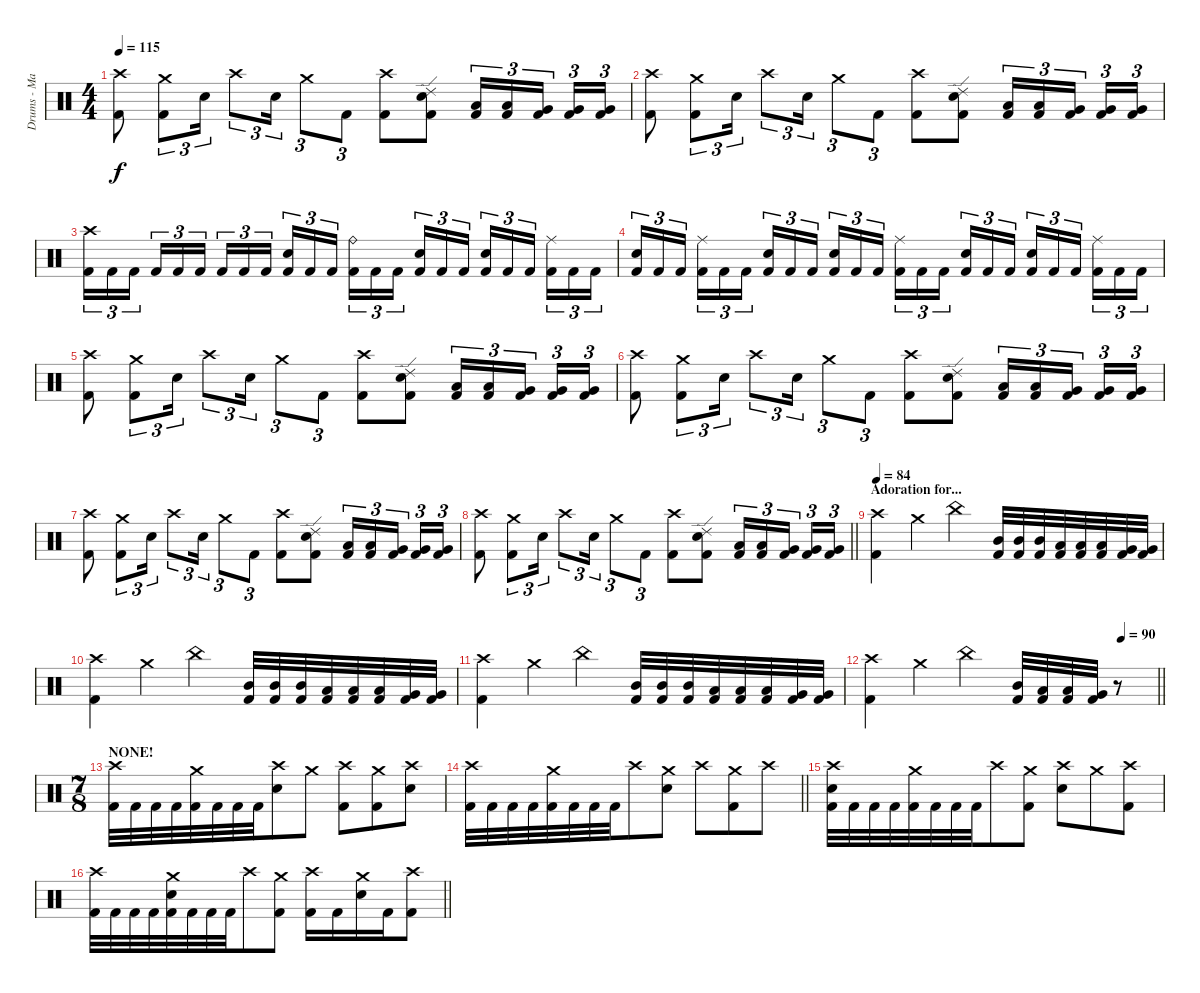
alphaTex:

\track ("Drums - Mario Duplantier" "Drums - Ma") {instrument percussion}
\staff {score}
\articulation defaults
\ts (4 4)
\tempo 115
\clef neutral
\ks c
("Crash high (hit)" "Kick (hit) 2").8{dy f} ("Crash medium (hit)" "Kick (hit) 2").8{tu (3 2)} "Electric Snare (hit)".16{tu (3 2)} "Crash high (hit)".8{tu (3 2)} "Electric Snare (hit)".16{tu (3 2)} "Crash medium (hit)".8{tu (3 2)} "Kick (hit) 2".8{tu (3 2)} ("Crash high (hit)" "Kick (hit) 2").8 ("Ride (edge) 2" "Electric Snare (hit)" "Kick (hit) 2").8 ("Low Tom (hit)" "Kick (hit) 2").16{tu (3 2)} ("Low Tom (hit)" "Kick (hit) 2").16{tu (3 2)} ("Very Low Tom (hit)" "Kick (hit) 2").16{tu (3 2) beam splitsecondary} ("Very Low Tom (hit)" "Kick (hit) 2").16{tu (3 2)} ("Very Low Tom (hit)" "Kick (hit) 2").16{tu (3 2)} |
("Crash high (hit)" "Kick (hit) 2").8 ("Crash medium (hit)" "Kick (hit) 2").8{tu (3 2)} "Electric Snare (hit)".16{tu (3 2)} "Crash high (hit)".8{tu (3 2)} "Electric Snare (hit)".16{tu (3 2)} "Crash medium (hit)".8{tu (3 2)} "Kick (hit) 2".8{tu (3 2)} ("Crash high (hit)" "Kick (hit) 2").8 ("Ride (edge) 2" "Electric Snare (hit)" "Kick (hit) 2").8 ("Low Tom (hit)" "Kick (hit) 2").16{tu (3 2)} ("Low Tom (hit)" "Kick (hit) 2").16{tu (3 2)} ("Very Low Tom (hit)" "Kick (hit) 2").16{tu (3 2) beam splitsecondary} ("Very Low Tom (hit)" "Kick (hit) 2").16{tu (3 2)} ("Very Low Tom (hit)" "Kick (hit) 2").16{tu (3 2)} |
("Crash high (hit)" "Kick (hit) 2").16{tu (3 2)} "Kick (hit) 2".16{tu (3 2)} "Kick (hit) 2".16{tu (3 2) beam splitsecondary} "Kick (hit) 2".16{tu (3 2)} "Kick (hit) 2".16{tu (3 2)} "Kick (hit) 2".16{tu (3 2)} "Kick (hit) 2".16{tu (3 2)} "Kick (hit) 2".16{tu (3 2)} "Kick (hit) 2".16{tu (3 2) beam splitsecondary} ("Electric Snare (hit)" "Kick (hit) 2").16{tu (3 2)} "Kick (hit) 2".16{tu (3 2)} "Kick (hit) 2".16{tu (3 2)} ("Ride (bell)" "Kick (hit) 2").16{tu (3 2)} "Kick (hit) 2".16{tu (3 2)} "Kick (hit) 2".16{tu (3 2) beam splitsecondary} ("Electric Snare (hit)" "Kick (hit) 2").16{tu (3 2)} "Kick (hit) 2".16{tu (3 2)} "Kick (hit) 2".16{tu (3 2)} ("Electric Snare (hit)" "Kick (hit) 2").16{tu (3 2)} "Kick (hit) 2".16{tu (3 2)} "Kick (hit) 2".16{tu (3 2) beam splitsecondary} ("Ride (middle)" "Kick (hit) 2").16{tu (3 2)} "Kick (hit) 2".16{tu (3 2)} "Kick (hit) 2".16{tu (3 2)} |
("Electric Snare (hit)" "Kick (hit) 2").16{tu (3 2)} "Kick (hit) 2".16{tu (3 2)} "Kick (hit) 2".16{tu (3 2) beam splitsecondary} ("Ride (middle)" "Kick (hit) 2").16{tu (3 2)} "Kick (hit) 2".16{tu (3 2)} "Kick (hit) 2".16{tu (3 2)} ("Electric Snare (hit)" "Kick (hit) 2").16{tu (3 2)} "Kick (hit) 2".16{tu (3 2)} "Kick (hit) 2".16{tu (3 2) beam splitsecondary} ("Electric Snare (hit)" "Kick (hit) 2").16{tu (3 2)} "Kick (hit) 2".16{tu (3 2)} "Kick (hit) 2".16{tu (3 2)} ("Ride (middle)" "Kick (hit) 2").16{tu (3 2)} "Kick (hit) 2".16{tu (3 2)} "Kick (hit) 2".16{tu (3 2) beam splitsecondary} ("Electric Snare (hit)" "Kick (hit) 2").16{tu (3 2)} "Kick (hit) 2".16{tu (3 2)} "Kick (hit) 2".16{tu (3 2)} ("Electric Snare (hit)" "Kick (hit) 2").16{tu (3 2)} "Kick (hit) 2".16{tu (3 2)} "Kick (hit) 2".16{tu (3 2) beam splitsecondary} ("Ride (middle)" "Kick (hit) 2").16{tu (3 2)} "Kick (hit) 2".16{tu (3 2)} "Kick (hit) 2".16{tu (3 2)} |
("Crash high (hit)" "Kick (hit) 2").8 ("Crash medium (hit)" "Kick (hit) 2").8{tu (3 2)} "Electric Snare (hit)".16{tu (3 2)} "Crash high (hit)".8{tu (3 2)} "Electric Snare (hit)".16{tu (3 2)} "Crash medium (hit)".8{tu (3 2)} "Kick (hit) 2".8{tu (3 2)} ("Crash high (hit)" "Kick (hit) 2").8 ("Ride (edge) 2" "Electric Snare (hit)" "Kick (hit) 2").8 ("Low Tom (hit)" "Kick (hit) 2").16{tu (3 2)} ("Low Tom (hit)" "Kick (hit) 2").16{tu (3 2)} ("Very Low Tom (hit)" "Kick (hit) 2").16{tu (3 2) beam splitsecondary} ("Very Low Tom (hit)" "Kick (hit) 2").16{tu (3 2)} ("Very Low Tom (hit)" "Kick (hit) 2").16{tu (3 2)} |
("Crash high (hit)" "Kick (hit) 2").8 ("Crash medium (hit)" "Kick (hit) 2").8{tu (3 2)} "Electric Snare (hit)".16{tu (3 2)} "Crash high (hit)".8{tu (3 2)} "Electric Snare (hit)".16{tu (3 2)} "Crash medium (hit)".8{tu (3 2)} "Kick (hit) 2".8{tu (3 2)} ("Crash high (hit)" "Kick (hit) 2").8 ("Ride (edge) 2" "Electric Snare (hit)" "Kick (hit) 2").8 ("Low Tom (hit)" "Kick (hit) 2").16{tu (3 2)} ("Low Tom (hit)" "Kick (hit) 2").16{tu (3 2)} ("Very Low Tom (hit)" "Kick (hit) 2").16{tu (3 2) beam splitsecondary} ("Very Low Tom (hit)" "Kick (hit) 2").16{tu (3 2)} ("Very Low Tom (hit)" "Kick (hit) 2").16{tu (3 2)} |
("Crash high (hit)" "Kick (hit) 2").8 ("Crash medium (hit)" "Kick (hit) 2").8{tu (3 2)} "Electric Snare (hit)".16{tu (3 2)} "Crash high (hit)".8{tu (3 2)} "Electric Snare (hit)".16{tu (3 2)} "Crash medium (hit)".8{tu (3 2)} "Kick (hit) 2".8{tu (3 2)} ("Crash high (hit)" "Kick (hit) 2").8 ("Ride (edge) 2" "Electric Snare (hit)" "Kick (hit) 2").8 ("Low Tom (hit)" "Kick (hit) 2").16{tu (3 2)} ("Low Tom (hit)" "Kick (hit) 2").16{tu (3 2)} ("Very Low Tom (hit)" "Kick (hit) 2").16{tu (3 2) beam splitsecondary} ("Very Low Tom (hit)" "Kick (hit) 2").16{tu (3 2)} ("Very Low Tom (hit)" "Kick (hit) 2").16{tu (3 2)} |
\barLineRight lightlight
("Crash high (hit)" "Kick (hit) 2").8 ("Crash medium (hit)" "Kick (hit) 2").8{tu (3 2)} "Electric Snare (hit)".16{tu (3 2)} "Crash high (hit)".8{tu (3 2)} "Electric Snare (hit)".16{tu (3 2)} "Crash medium (hit)".8{tu (3 2)} "Kick (hit) 2".8{tu (3 2)} ("Crash high (hit)" "Kick (hit) 2").8 ("Ride (edge) 2" "Electric Snare (hit)" "Kick (hit) 2").8 ("Low Tom (hit)" "Kick (hit) 2").16{tu (3 2)} ("Low Tom (hit)" "Kick (hit) 2").16{tu (3 2)} ("Very Low Tom (hit)" "Kick (hit) 2").16{tu (3 2) beam splitsecondary} ("Very Low Tom (hit)" "Kick (hit) 2").16{tu (3 2)} ("Very Low Tom (hit)" "Kick (hit) 2").16{tu (3 2)} |
\section ("" "Adoration for...")
\tempo 84
("Crash high (hit)" "Kick (hit) 2").4 "Crash medium (hit)".4 "China (hit)".4 ("Mid Tom (hit)" "Kick (hit) 2").32 ("Mid Tom (hit)" "Kick (hit) 2").32 ("Mid Tom (hit)" "Kick (hit) 2").32 ("Low Tom (hit)" "Kick (hit) 2").32 ("Low Tom (hit)" "Kick (hit) 2").32 ("Low Tom (hit)" "Kick (hit) 2").32 ("Very Low Tom (hit)" "Kick (hit) 2").32 ("Very Low Tom (hit)" "Kick (hit) 2").32 |
("Crash high (hit)" "Kick (hit) 2").4 "Crash medium (hit)".4 "China (hit)".4 ("Mid Tom (hit)" "Kick (hit) 2").32 ("Mid Tom (hit)" "Kick (hit) 2").32 ("Mid Tom (hit)" "Kick (hit) 2").32 ("Low Tom (hit)" "Kick (hit) 2").32 ("Low Tom (hit)" "Kick (hit) 2").32 ("Low Tom (hit)" "Kick (hit) 2").32 ("Very Low Tom (hit)" "Kick (hit) 2").32 ("Very Low Tom (hit)" "Kick (hit) 2").32 |
("Crash high (hit)" "Kick (hit) 2").4 "Crash medium (hit)".4 "China (hit)".4 ("Mid Tom (hit)" "Kick (hit) 2").32 ("Mid Tom (hit)" "Kick (hit) 2").32 ("Mid Tom (hit)" "Kick (hit) 2").32 ("Low Tom (hit)" "Kick (hit) 2").32 ("Low Tom (hit)" "Kick (hit) 2").32 ("Low Tom (hit)" "Kick (hit) 2").32 ("Very Low Tom (hit)" "Kick (hit) 2").32 ("Very Low Tom (hit)" "Kick (hit) 2").32 |
\tempo (90 0.875)
\barLineRight lightlight
("Crash high (hit)" "Kick (hit) 2").4 "Crash medium (hit)".4 "China (hit)".4 ("Mid Tom (hit)" "Kick (hit) 2").32 ("Low Tom (hit)" "Kick (hit) 2").32 ("Low Tom (hit)" "Kick (hit) 2").32 ("Very Low Tom (hit)" "Kick (hit) 2").32 r.8 |
\ts (7 8)
\section ("" "NONE!")
("Crash high (hit)" "Kick (hit) 2").32 "Kick (hit) 2".32 "Kick (hit) 2".32 "Kick (hit) 2".32 ("Crash medium (hit)" "Kick (hit) 2").32 "Kick (hit) 2".32 "Kick (hit) 2".32 "Kick (hit) 2".32 ("Crash high (hit)" "Electric Snare (hit)").8 "Crash medium (hit)".8 ("Crash high (hit)" "Kick (hit) 2").8 ("Crash medium (hit)" "Kick (hit) 2").8 ("Crash high (hit)" "Electric Snare (hit)").8 |
\barLineRight lightlight
("Crash high (hit)" "Kick (hit) 2").32 "Kick (hit) 2".32 "Kick (hit) 2".32 "Kick (hit) 2".32 ("Crash medium (hit)" "Kick (hit) 2").32 "Kick (hit) 2".32 "Kick (hit) 2".32 "Kick (hit) 2".32 "Crash high (hit)".8 ("Crash medium (hit)" "Electric Snare (hit)").8 "Crash high (hit)".8 ("Crash medium (hit)" "Kick (hit) 2").8 "Crash high (hit)".8 |
("Crash high (hit)" "Electric Snare (hit)" "Kick (hit) 2").32 "Kick (hit) 2".32 "Kick (hit) 2".32 "Kick (hit) 2".32 ("Crash medium (hit)" "Kick (hit) 2").32 "Kick (hit) 2".32 "Kick (hit) 2".32 "Kick (hit) 2".32 "Crash high (hit)".8 ("Crash medium (hit)" "Kick (hit) 2").8 ("Crash high (hit)" "Electric Snare (hit)").8 "Crash medium (hit)".8 ("Crash high (hit)" "Kick (hit) 2").8 |
\barLineRight lightlight
("Crash high (hit)" "Kick (hit) 2").32 "Kick (hit) 2".32 "Kick (hit) 2".32 "Kick (hit) 2".32 ("Crash medium (hit)" "Electric Snare (hit)" "Kick (hit) 2").32 "Kick (hit) 2".32 "Kick (hit) 2".32 "Kick (hit) 2".32 "Crash high (hit)".8 ("Crash medium (hit)" "Kick (hit) 2").8 ("Crash high (hit)" "Kick (hit) 2").16 "Kick (hit) 2".16 ("Crash medium (hit)" "Electric Snare (hit)").16 "Kick (hit) 2".16 ("Crash high (hit)" "Kick (hit) 2").8
